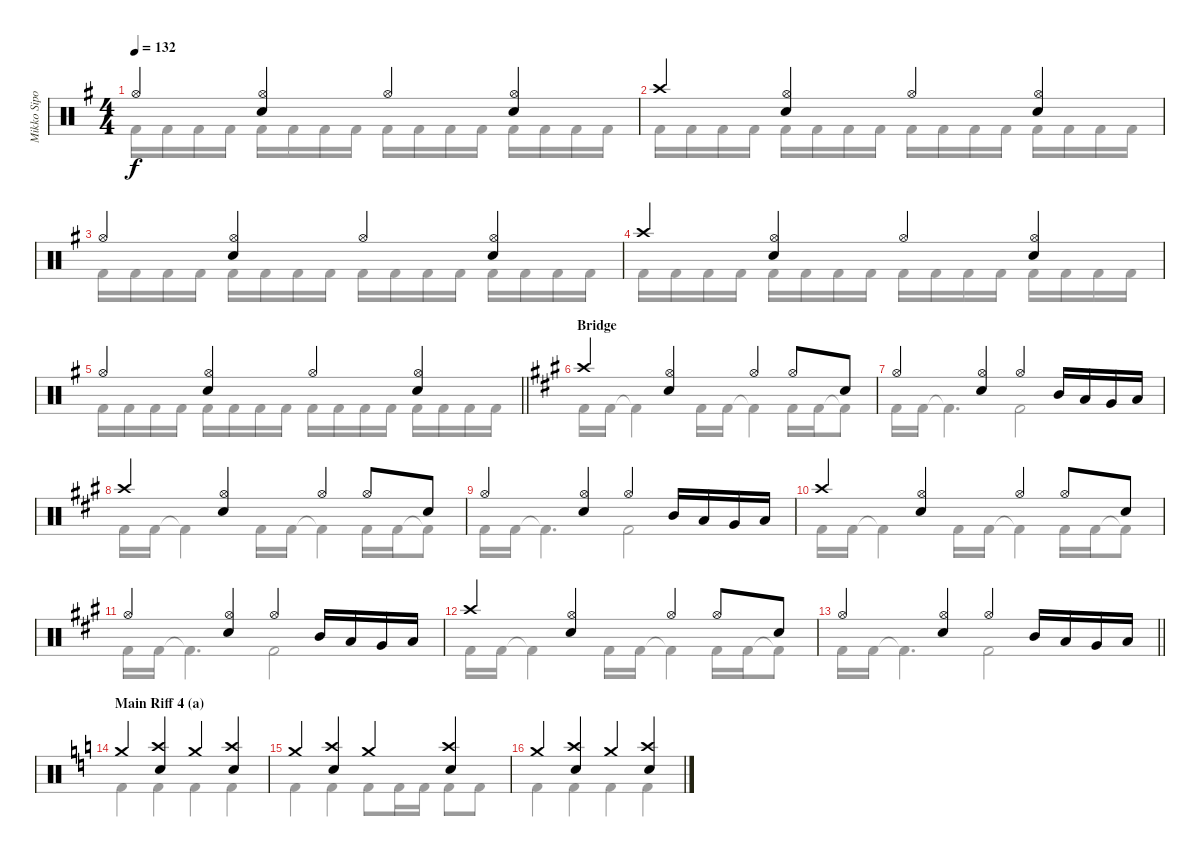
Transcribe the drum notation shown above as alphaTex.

\track ("Mikko Sipola (drums)" "Mikko Sipo") {instrument percussion}
\staff {score}
\articulation defaults
\voice
\ts (4 4)
\tempo 132
\clef neutral
\ks eminor "Hi-Hat (open)".4{dy f}
("Hi-Hat (open)" "Electric Snare (hit)").4 "Hi-Hat (open)".4 ("Hi-Hat (open)" "Electric Snare (hit)").4 |
"Crash high (hit)".4 ("Hi-Hat (open)" "Electric Snare (hit)").4 "Hi-Hat (open)".4 ("Hi-Hat (open)" "Electric Snare (hit)").4 |
"Hi-Hat (open)".4 ("Hi-Hat (open)" "Electric Snare (hit)").4 "Hi-Hat (open)".4 ("Hi-Hat (open)" "Electric Snare (hit)").4 |
"Crash high (hit)".4 ("Hi-Hat (open)" "Electric Snare (hit)").4 "Hi-Hat (open)".4 ("Hi-Hat (open)" "Electric Snare (hit)").4 |
\barLineRight lightlight "Hi-Hat (open)".4
("Hi-Hat (open)" "Electric Snare (hit)").4 "Hi-Hat (open)".4 ("Hi-Hat (open)" "Electric Snare (hit)").4 |
\section ("" "Bridge")
\ks f#minor "Crash high (hit)".4
("Hi-Hat (open)" "Electric Snare (hit)").4 "Hi-Hat (open)".4 "Hi-Hat (open)".8 "Electric Snare (hit)".8 |
"Hi-Hat (open)".4 ("Hi-Hat (open)" "Electric Snare (hit)").4 "Hi-Hat (open)".4 "Mid Tom (hit)".16 "Low Tom (hit)".16 "Very Low Tom (hit)".16 "Low Floor Tom (hit)".16 |
"Crash high (hit)".4 ("Hi-Hat (open)" "Electric Snare (hit)").4 "Hi-Hat (open)".4 "Hi-Hat (open)".8 "Electric Snare (hit)".8 |
"Hi-Hat (open)".4 ("Hi-Hat (open)" "Electric Snare (hit)").4 "Hi-Hat (open)".4 "Mid Tom (hit)".16 "Low Tom (hit)".16 "Very Low Tom (hit)".16 "Low Floor Tom (hit)".16 |
"Crash high (hit)".4 ("Hi-Hat (open)" "Electric Snare (hit)").4 "Hi-Hat (open)".4 "Hi-Hat (open)".8 "Electric Snare (hit)".8 |
"Hi-Hat (open)".4 ("Hi-Hat (open)" "Electric Snare (hit)").4 "Hi-Hat (open)".4 "Mid Tom (hit)".16 "Low Tom (hit)".16 "Very Low Tom (hit)".16 "Low Floor Tom (hit)".16 |
"Crash high (hit)".4 ("Hi-Hat (open)" "Electric Snare (hit)").4 "Hi-Hat (open)".4 "Hi-Hat (open)".8 "Electric Snare (hit)".8 |
\barLineRight lightlight "Hi-Hat (open)".4
("Hi-Hat (open)" "Electric Snare (hit)").4 "Hi-Hat (open)".4 "Mid Tom (hit)".16 "Low Tom (hit)".16 "Very Low Tom (hit)".16 "Low Floor Tom (hit)".16 |
\section ("" "Main Riff 4 (a)")
\ks c "Crash medium (hit)".4
("Electric Snare (hit)" "Crash high (hit)").4 "Crash medium (hit)".4 ("Electric Snare (hit)" "Crash high (hit)").4 |
"Crash medium (hit)".4 ("Electric Snare (hit)" "Crash high (hit)").4 "Crash medium (hit)".4 ("Electric Snare (hit)" "Crash high (hit)").4 |
"Crash medium (hit)".4 ("Electric Snare (hit)" "Crash high (hit)").4 "Crash medium (hit)".4 ("Electric Snare (hit)" "Crash high (hit)").4
\voice
\clef neutral
\ottava regular
\simile none
\ks eminor "Kick (hit) 2".16{dy f} "Kick (hit) 2".16 "Kick (hit) 2".16 "Kick (hit) 2".16 "Kick (hit) 2".16 "Kick (hit) 2".16 "Kick (hit) 2".16 "Kick (hit) 2".16 "Kick (hit) 2".16 "Kick (hit) 2".16 "Kick (hit) 2".16 "Kick (hit) 2".16 "Kick (hit) 2".16 "Kick (hit) 2".16 "Kick (hit) 2".16 "Kick (hit) 2".16
|
"Kick (hit) 2".16 "Kick (hit) 2".16 "Kick (hit) 2".16 "Kick (hit) 2".16 "Kick (hit) 2".16 "Kick (hit) 2".16 "Kick (hit) 2".16 "Kick (hit) 2".16 "Kick (hit) 2".16 "Kick (hit) 2".16 "Kick (hit) 2".16 "Kick (hit) 2".16 "Kick (hit) 2".16 "Kick (hit) 2".16 "Kick (hit) 2".16 "Kick (hit) 2".16 |
"Kick (hit) 2".16 "Kick (hit) 2".16 "Kick (hit) 2".16 "Kick (hit) 2".16 "Kick (hit) 2".16 "Kick (hit) 2".16 "Kick (hit) 2".16 "Kick (hit) 2".16 "Kick (hit) 2".16 "Kick (hit) 2".16 "Kick (hit) 2".16 "Kick (hit) 2".16 "Kick (hit) 2".16 "Kick (hit) 2".16 "Kick (hit) 2".16 "Kick (hit) 2".16 |
"Kick (hit) 2".16 "Kick (hit) 2".16 "Kick (hit) 2".16 "Kick (hit) 2".16 "Kick (hit) 2".16 "Kick (hit) 2".16 "Kick (hit) 2".16 "Kick (hit) 2".16 "Kick (hit) 2".16 "Kick (hit) 2".16 "Kick (hit) 2".16 "Kick (hit) 2".16 "Kick (hit) 2".16 "Kick (hit) 2".16 "Kick (hit) 2".16 "Kick (hit) 2".16 |
\barLineRight lightlight "Kick (hit) 2".16 "Kick (hit) 2".16 "Kick (hit) 2".16 "Kick (hit) 2".16 "Kick (hit) 2".16 "Kick (hit) 2".16 "Kick (hit) 2".16 "Kick (hit) 2".16 "Kick (hit) 2".16 "Kick (hit) 2".16 "Kick (hit) 2".16 "Kick (hit) 2".16 "Kick (hit) 2".16 "Kick (hit) 2".16 "Kick (hit) 2".16 "Kick (hit) 2".16
|
\ks f#minor "Kick (hit) 2".16 "Kick (hit) 2".16 "Kick (hit) 2"{t}.4 "Kick (hit) 2".16 "Kick (hit) 2".16 "Kick (hit) 2"{t}.4 "Kick (hit) 2".16 "Kick (hit) 2".16 "Kick (hit) 2"{t}.8
|
"Kick (hit) 2".16 "Kick (hit) 2".16 "Kick (hit) 2"{t}.4{d} "Kick (hit) 2".2 |
"Kick (hit) 2".16 "Kick (hit) 2".16 "Kick (hit) 2"{t}.4 "Kick (hit) 2".16 "Kick (hit) 2".16 "Kick (hit) 2"{t}.4 "Kick (hit) 2".16 "Kick (hit) 2".16 "Kick (hit) 2"{t}.8 |
"Kick (hit) 2".16 "Kick (hit) 2".16 "Kick (hit) 2"{t}.4{d} "Kick (hit) 2".2 |
"Kick (hit) 2".16 "Kick (hit) 2".16 "Kick (hit) 2"{t}.4 "Kick (hit) 2".16 "Kick (hit) 2".16 "Kick (hit) 2"{t}.4 "Kick (hit) 2".16 "Kick (hit) 2".16 "Kick (hit) 2"{t}.8 |
"Kick (hit) 2".16 "Kick (hit) 2".16 "Kick (hit) 2"{t}.4{d} "Kick (hit) 2".2 |
"Kick (hit) 2".16 "Kick (hit) 2".16 "Kick (hit) 2"{t}.4 "Kick (hit) 2".16 "Kick (hit) 2".16 "Kick (hit) 2"{t}.4 "Kick (hit) 2".16 "Kick (hit) 2".16 "Kick (hit) 2"{t}.8 |
\barLineRight lightlight "Kick (hit) 2".16 "Kick (hit) 2".16 "Kick (hit) 2"{t}.4{d} "Kick (hit) 2".2
|
\ks c "Kick (hit) 2".4 "Kick (hit) 2".4 "Kick (hit) 2".4 "Kick (hit) 2".4
|
"Kick (hit) 2".4 "Kick (hit) 2".4 "Kick (hit) 2".8 "Kick (hit) 2".16 "Kick (hit) 2".16 "Kick (hit) 2".8 "Kick (hit) 2".8 |
"Kick (hit) 2".4 "Kick (hit) 2".4 "Kick (hit) 2".4 "Kick (hit) 2".4
